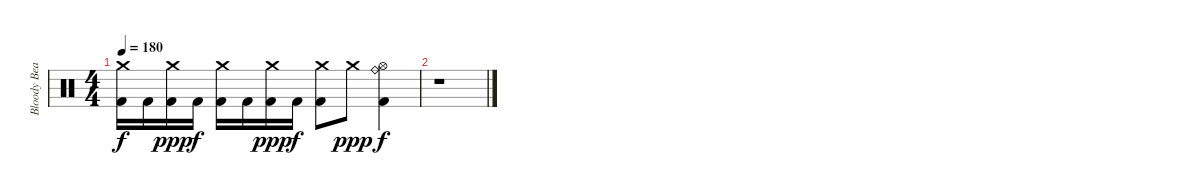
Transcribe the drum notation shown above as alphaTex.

\track ("Bloody Beater" "Bloody Bea") {instrument percussion}
\staff {score}
\articulation defaults
\ts (4 4)
\tempo 180
\clef neutral
\ks c
("Crash medium (hit)" "Kick (hit) 2").16{dy f} "Kick (hit) 2".16 ("Crash medium (hit)" "Kick (hit) 2").16{dy ppp} "Kick (hit) 2".16{dy f} ("Crash medium (hit)" "Kick (hit) 2").16 "Kick (hit) 2".16 ("Crash medium (hit)" "Kick (hit) 2").16{dy ppp} "Kick (hit) 2".16{dy f} ("Crash medium (hit)" "Kick (hit) 2").8 "Crash medium (hit)".8{dy ppp} ("Ride (bell)" "Hi-Hat (open)" "Kick (hit) 2").4{dy f} |
r.1
